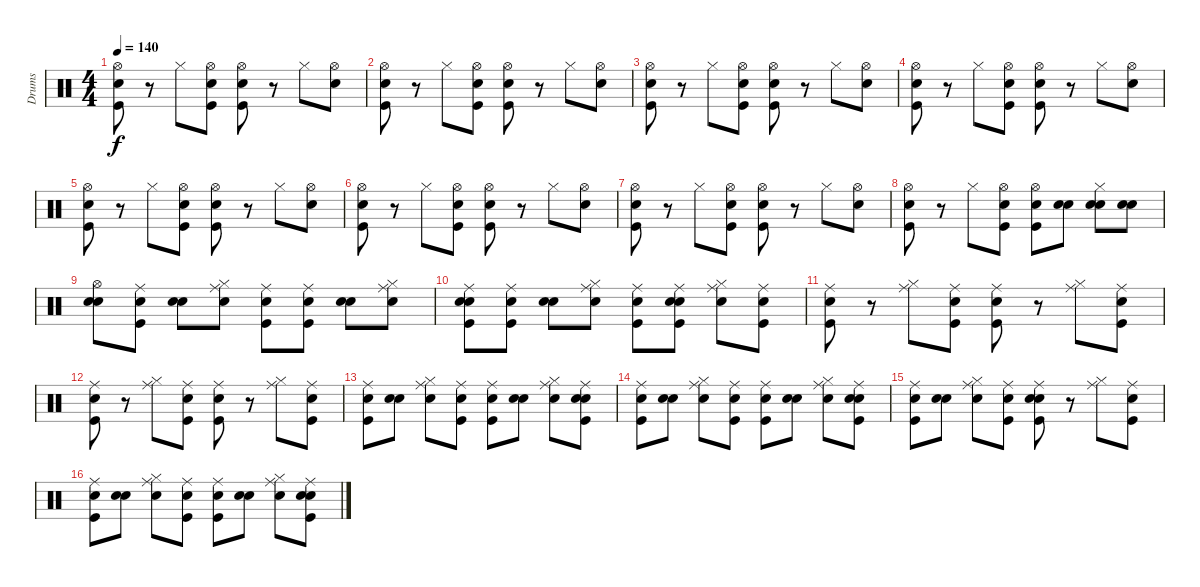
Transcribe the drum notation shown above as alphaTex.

\track ("Drums" "Drums") {instrument percussion}
\staff {score}
\articulation defaults
\ts (4 4)
\tempo 140
\clef neutral
\ks c
("Snare (hit)" "Kick (hit)" "Hi-Hat (open)").8{dy f} r.8 "Hi-Hat (closed)".8 ("Snare (hit)" "Kick (hit)" "Hi-Hat (open)").8 ("Snare (hit)" "Kick (hit)" "Hi-Hat (open)").8 r.8 "Hi-Hat (closed)".8 ("Snare (hit)" "Hi-Hat (open)").8 |
("Snare (hit)" "Kick (hit)" "Hi-Hat (open)").8 r.8 "Hi-Hat (closed)".8 ("Snare (hit)" "Kick (hit)" "Hi-Hat (open)").8 ("Snare (hit)" "Kick (hit)" "Hi-Hat (open)").8 r.8 "Hi-Hat (closed)".8 ("Snare (hit)" "Hi-Hat (open)").8 |
("Snare (hit)" "Kick (hit)" "Hi-Hat (open)").8 r.8 "Hi-Hat (closed)".8 ("Snare (hit)" "Kick (hit)" "Hi-Hat (open)").8 ("Snare (hit)" "Kick (hit)" "Hi-Hat (open)").8 r.8 "Hi-Hat (closed)".8 ("Snare (hit)" "Hi-Hat (open)").8 |
("Snare (hit)" "Kick (hit)" "Hi-Hat (open)").8 r.8 "Hi-Hat (closed)".8 ("Snare (hit)" "Kick (hit)" "Hi-Hat (open)").8 ("Snare (hit)" "Kick (hit)" "Hi-Hat (open)").8 r.8 "Hi-Hat (closed)".8 ("Snare (hit)" "Hi-Hat (open)").8 |
("Snare (hit)" "Kick (hit)" "Hi-Hat (open)").8 r.8 "Hi-Hat (closed)".8 ("Snare (hit)" "Kick (hit)" "Hi-Hat (open)").8 ("Snare (hit)" "Kick (hit)" "Hi-Hat (open)").8 r.8 "Hi-Hat (closed)".8 ("Snare (hit)" "Hi-Hat (open)").8 |
("Snare (hit)" "Kick (hit)" "Hi-Hat (open)").8 r.8 "Hi-Hat (closed)".8 ("Snare (hit)" "Kick (hit)" "Hi-Hat (open)").8 ("Snare (hit)" "Kick (hit)" "Hi-Hat (open)").8 r.8 "Hi-Hat (closed)".8 ("Snare (hit)" "Hi-Hat (open)").8 |
("Snare (hit)" "Kick (hit)" "Hi-Hat (open)").8 r.8 "Hi-Hat (closed)".8 ("Snare (hit)" "Kick (hit)" "Hi-Hat (open)").8 ("Snare (hit)" "Kick (hit)" "Hi-Hat (open)").8 r.8 "Hi-Hat (closed)".8 ("Snare (hit)" "Hi-Hat (open)").8 |
("Snare (hit)" "Kick (hit)" "Hi-Hat (open)").8 r.8 "Hi-Hat (closed)".8 ("Snare (hit)" "Kick (hit)" "Hi-Hat (open)").8 ("Snare (hit)" "Kick (hit)" "Hi-Hat (open)").8 ("Snare (hit)" "Snare (hit) 2").8 ("Snare (hit)" "Snare (hit) 2" "Hi-Hat (closed)").8 ("Snare (hit)" "Snare (hit) 2").8 |
("Snare (hit)" "Snare (hit) 2" "Hi-Hat (open)").8 ("Snare (hit)" "Kick (hit)" "Ride (middle)").8 ("Snare (hit)" "Snare (hit) 2").8 ("Snare (hit)" "Hi-Hat (closed)" "Ride (middle)").8 ("Snare (hit)" "Kick (hit)" "Ride (middle)").8 ("Snare (hit)" "Kick (hit)" "Ride (middle)").8 ("Snare (hit)" "Snare (hit) 2").8 ("Snare (hit)" "Hi-Hat (closed)" "Ride (middle)").8 |
("Snare (hit)" "Kick (hit)" "Snare (hit) 2" "Ride (middle)").8 ("Snare (hit)" "Kick (hit)" "Ride (middle)").8 ("Snare (hit)" "Snare (hit) 2").8 ("Snare (hit)" "Hi-Hat (closed)" "Ride (middle)").8 ("Snare (hit)" "Kick (hit)" "Ride (middle)").8 ("Snare (hit)" "Kick (hit)" "Snare (hit) 2" "Ride (middle)").8 ("Snare (hit)" "Hi-Hat (closed)" "Ride (middle)").8 ("Snare (hit)" "Kick (hit)" "Ride (middle)").8 |
("Snare (hit)" "Kick (hit)" "Ride (middle)").8 r.8 ("Hi-Hat (closed)" "Ride (middle)").8 ("Snare (hit)" "Kick (hit)" "Ride (middle)").8 ("Snare (hit)" "Kick (hit)" "Ride (middle)").8 r.8 ("Hi-Hat (closed)" "Ride (middle)").8 ("Snare (hit)" "Kick (hit)" "Ride (middle)").8 |
("Snare (hit)" "Kick (hit)" "Ride (middle)").8 r.8 ("Hi-Hat (closed)" "Ride (middle)").8 ("Snare (hit)" "Kick (hit)" "Ride (middle)").8 ("Snare (hit)" "Kick (hit)" "Ride (middle)").8 r.8 ("Hi-Hat (closed)" "Ride (middle)").8 ("Snare (hit)" "Kick (hit)" "Ride (middle)").8 |
("Snare (hit)" "Kick (hit)" "Ride (middle)").8 ("Snare (hit)" "Snare (hit) 2").8 ("Snare (hit)" "Hi-Hat (closed)" "Ride (middle)").8 ("Snare (hit)" "Kick (hit)" "Ride (middle)").8 ("Snare (hit)" "Kick (hit)" "Ride (middle)").8 ("Snare (hit)" "Snare (hit) 2").8 ("Snare (hit)" "Hi-Hat (closed)" "Ride (middle)").8 ("Snare (hit)" "Kick (hit)" "Snare (hit) 2" "Ride (middle)").8 |
("Snare (hit)" "Kick (hit)" "Ride (middle)").8 ("Snare (hit)" "Snare (hit) 2").8 ("Snare (hit)" "Hi-Hat (closed)" "Ride (middle)").8 ("Snare (hit)" "Kick (hit)" "Ride (middle)").8 ("Snare (hit)" "Kick (hit)" "Ride (middle)").8 ("Snare (hit)" "Snare (hit) 2").8 ("Snare (hit)" "Hi-Hat (closed)" "Ride (middle)").8 ("Snare (hit)" "Kick (hit)" "Snare (hit) 2" "Ride (middle)").8 |
("Snare (hit)" "Kick (hit)" "Ride (middle)").8 ("Snare (hit)" "Snare (hit) 2").8 ("Snare (hit)" "Hi-Hat (closed)" "Ride (middle)").8 ("Snare (hit)" "Kick (hit)" "Ride (middle)").8 ("Snare (hit)" "Kick (hit)" "Snare (hit) 2" "Ride (middle)").8 r.8 ("Hi-Hat (closed)" "Ride (middle)").8 ("Snare (hit)" "Kick (hit)" "Ride (middle)").8 |
("Snare (hit)" "Kick (hit)" "Ride (middle)").8 ("Snare (hit)" "Snare (hit) 2").8 ("Snare (hit)" "Hi-Hat (closed)" "Ride (middle)").8 ("Snare (hit)" "Kick (hit)" "Ride (middle)").8 ("Snare (hit)" "Kick (hit)" "Ride (middle)").8 ("Snare (hit)" "Snare (hit) 2").8 ("Snare (hit)" "Hi-Hat (closed)" "Ride (middle)").8 ("Snare (hit)" "Kick (hit)" "Snare (hit) 2" "Ride (middle)").8
